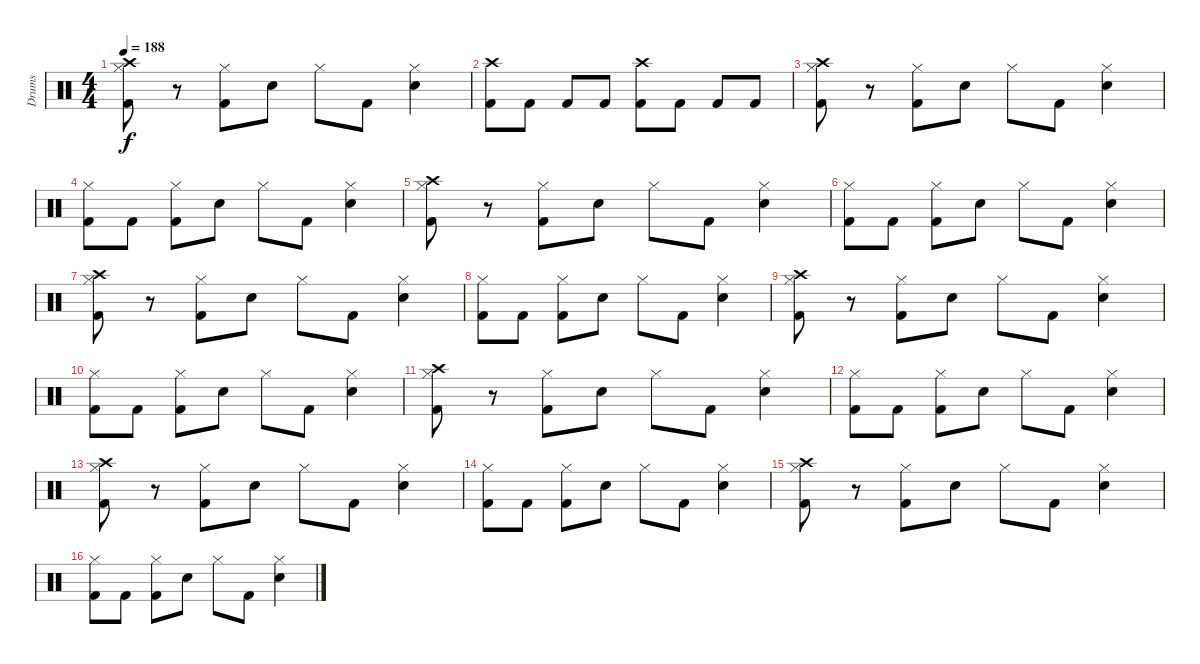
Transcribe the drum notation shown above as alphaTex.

\track ("Drums" "Drums") {instrument percussion}
\staff {score}
\articulation defaults
\ts (4 4)
\tempo 188
\clef neutral
\ks c
("Crash high (hit)" "Hi-Hat (closed)" "Kick (hit) 2").8{dy f} r.8 ("Hi-Hat (closed)" "Kick (hit) 2").8 "Snare (hit) 2".8 "Hi-Hat (closed)".8 "Kick (hit) 2".8 ("Hi-Hat (closed)" "Snare (hit) 2").4 |
("Crash high (hit)" "Kick (hit) 2").8 "Kick (hit) 2".8 "Kick (hit) 2".8 "Kick (hit) 2".8 ("Crash high (hit)" "Kick (hit) 2").8 "Kick (hit) 2".8 "Kick (hit) 2".8 "Kick (hit) 2".8 |
("Crash high (hit)" "Hi-Hat (closed)" "Kick (hit) 2").8 r.8 ("Hi-Hat (closed)" "Kick (hit) 2").8 "Snare (hit) 2".8 "Hi-Hat (closed)".8 "Kick (hit) 2".8 ("Hi-Hat (closed)" "Snare (hit) 2").4 |
("Hi-Hat (closed)" "Kick (hit) 2").8 "Kick (hit) 2".8 ("Hi-Hat (closed)" "Kick (hit) 2").8 "Snare (hit) 2".8 "Hi-Hat (closed)".8 "Kick (hit) 2".8 ("Hi-Hat (closed)" "Snare (hit) 2").4 |
("Crash high (hit)" "Hi-Hat (closed)" "Kick (hit) 2").8 r.8 ("Hi-Hat (closed)" "Kick (hit) 2").8 "Snare (hit) 2".8 "Hi-Hat (closed)".8 "Kick (hit) 2".8 ("Hi-Hat (closed)" "Snare (hit) 2").4 |
("Hi-Hat (closed)" "Kick (hit) 2").8 "Kick (hit) 2".8 ("Hi-Hat (closed)" "Kick (hit) 2").8 "Snare (hit) 2".8 "Hi-Hat (closed)".8 "Kick (hit) 2".8 ("Hi-Hat (closed)" "Snare (hit) 2").4 |
("Crash high (hit)" "Hi-Hat (closed)" "Kick (hit) 2").8 r.8 ("Hi-Hat (closed)" "Kick (hit) 2").8 "Snare (hit) 2".8 "Hi-Hat (closed)".8 "Kick (hit) 2".8 ("Hi-Hat (closed)" "Snare (hit) 2").4 |
("Hi-Hat (closed)" "Kick (hit) 2").8 "Kick (hit) 2".8 ("Hi-Hat (closed)" "Kick (hit) 2").8 "Snare (hit) 2".8 "Hi-Hat (closed)".8 "Kick (hit) 2".8 ("Hi-Hat (closed)" "Snare (hit) 2").4 |
("Crash high (hit)" "Hi-Hat (closed)" "Kick (hit) 2").8 r.8 ("Hi-Hat (closed)" "Kick (hit) 2").8 "Snare (hit) 2".8 "Hi-Hat (closed)".8 "Kick (hit) 2".8 ("Hi-Hat (closed)" "Snare (hit) 2").4 |
("Hi-Hat (closed)" "Kick (hit) 2").8 "Kick (hit) 2".8 ("Hi-Hat (closed)" "Kick (hit) 2").8 "Snare (hit) 2".8 "Hi-Hat (closed)".8 "Kick (hit) 2".8 ("Hi-Hat (closed)" "Snare (hit) 2").4 |
("Crash high (hit)" "Hi-Hat (closed)" "Kick (hit) 2").8 r.8 ("Hi-Hat (closed)" "Kick (hit) 2").8 "Snare (hit) 2".8 "Hi-Hat (closed)".8 "Kick (hit) 2".8 ("Hi-Hat (closed)" "Snare (hit) 2").4 |
("Hi-Hat (closed)" "Kick (hit) 2").8 "Kick (hit) 2".8 ("Hi-Hat (closed)" "Kick (hit) 2").8 "Snare (hit) 2".8 "Hi-Hat (closed)".8 "Kick (hit) 2".8 ("Hi-Hat (closed)" "Snare (hit) 2").4 |
("Crash high (hit)" "Hi-Hat (closed)" "Kick (hit) 2").8 r.8 ("Hi-Hat (closed)" "Kick (hit) 2").8 "Snare (hit) 2".8 "Hi-Hat (closed)".8 "Kick (hit) 2".8 ("Hi-Hat (closed)" "Snare (hit) 2").4 |
("Hi-Hat (closed)" "Kick (hit) 2").8 "Kick (hit) 2".8 ("Hi-Hat (closed)" "Kick (hit) 2").8 "Snare (hit) 2".8 "Hi-Hat (closed)".8 "Kick (hit) 2".8 ("Hi-Hat (closed)" "Snare (hit) 2").4 |
("Crash high (hit)" "Hi-Hat (closed)" "Kick (hit) 2").8 r.8 ("Hi-Hat (closed)" "Kick (hit) 2").8 "Snare (hit) 2".8 "Hi-Hat (closed)".8 "Kick (hit) 2".8 ("Hi-Hat (closed)" "Snare (hit) 2").4 |
("Hi-Hat (closed)" "Kick (hit) 2").8 "Kick (hit) 2".8 ("Hi-Hat (closed)" "Kick (hit) 2").8 "Snare (hit) 2".8 "Hi-Hat (closed)".8 "Kick (hit) 2".8 ("Hi-Hat (closed)" "Snare (hit) 2").4
